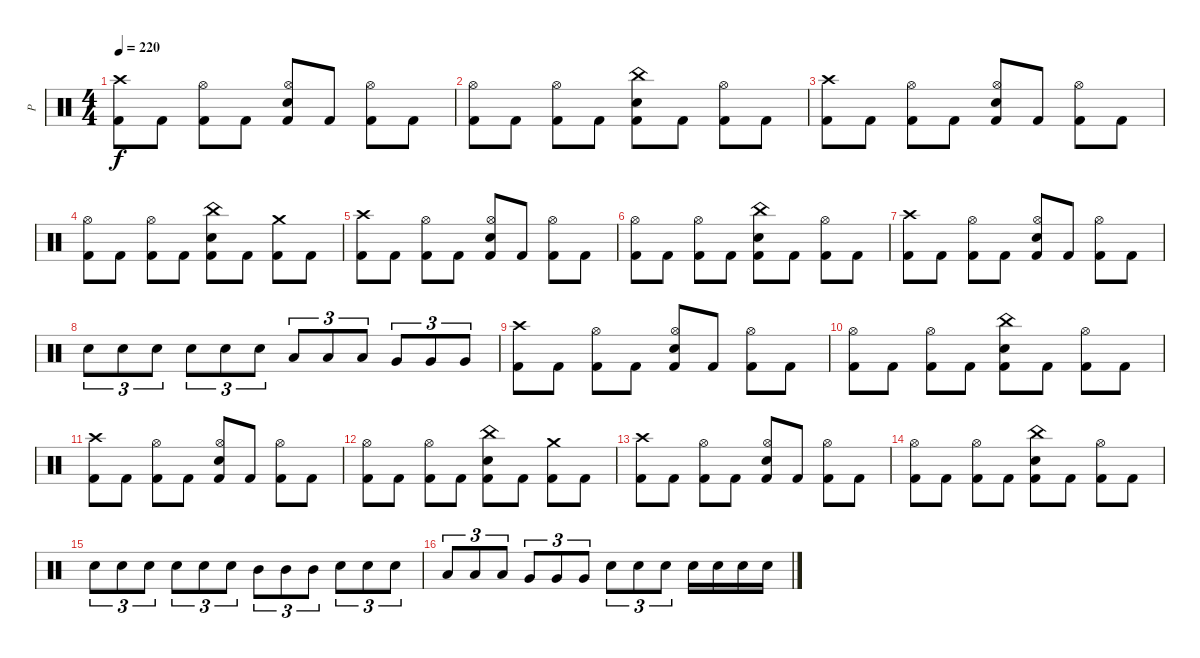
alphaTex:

\track ("P" "P") {instrument percussion}
\staff {score}
\articulation defaults
\ts (4 4)
\tempo 220
\clef neutral
\ks c
("Crash high (hit)" "Kick (hit) 2").8{dy f} "Kick (hit) 2".8 ("Hi-Hat (open)" "Kick (hit) 2").8 "Kick (hit) 2".8 ("Hi-Hat (open)" "Electric Snare (hit)" "Kick (hit) 2").8 "Kick (hit) 2".8 ("Hi-Hat (open)" "Kick (hit) 2").8 "Kick (hit) 2".8 |
("Hi-Hat (open)" "Kick (hit) 2").8 "Kick (hit) 2".8 ("Hi-Hat (open)" "Kick (hit) 2").8 "Kick (hit) 2".8 ("China (hit)" "Electric Snare (hit)" "Kick (hit) 2").8 "Kick (hit) 2".8 ("Hi-Hat (open)" "Kick (hit) 2").8 "Kick (hit) 2".8 |
("Crash high (hit)" "Kick (hit) 2").8 "Kick (hit) 2".8 ("Hi-Hat (open)" "Kick (hit) 2").8 "Kick (hit) 2".8 ("Hi-Hat (open)" "Electric Snare (hit)" "Kick (hit) 2").8 "Kick (hit) 2".8 ("Hi-Hat (open)" "Kick (hit) 2").8 "Kick (hit) 2".8 |
("Hi-Hat (open)" "Kick (hit) 2").8 "Kick (hit) 2".8 ("Hi-Hat (open)" "Kick (hit) 2").8 "Kick (hit) 2".8 ("China (hit)" "Electric Snare (hit)" "Kick (hit) 2").8 "Kick (hit) 2".8 ("Crash medium (hit)" "Kick (hit) 2").8 "Kick (hit) 2".8 |
("Crash high (hit)" "Kick (hit) 2").8 "Kick (hit) 2".8 ("Hi-Hat (open)" "Kick (hit) 2").8 "Kick (hit) 2".8 ("Hi-Hat (open)" "Electric Snare (hit)" "Kick (hit) 2").8 "Kick (hit) 2".8 ("Hi-Hat (open)" "Kick (hit) 2").8 "Kick (hit) 2".8 |
("Hi-Hat (open)" "Kick (hit) 2").8 "Kick (hit) 2".8 ("Hi-Hat (open)" "Kick (hit) 2").8 "Kick (hit) 2".8 ("China (hit)" "Electric Snare (hit)" "Kick (hit) 2").8 "Kick (hit) 2".8 ("Hi-Hat (open)" "Kick (hit) 2").8 "Kick (hit) 2".8 |
("Crash high (hit)" "Kick (hit) 2").8 "Kick (hit) 2".8 ("Hi-Hat (open)" "Kick (hit) 2").8 "Kick (hit) 2".8 ("Hi-Hat (open)" "Electric Snare (hit)" "Kick (hit) 2").8 "Kick (hit) 2".8 ("Hi-Hat (open)" "Kick (hit) 2").8 "Kick (hit) 2".8 |
"Electric Snare (hit)".8{tu (3 2)} "Electric Snare (hit)".8{tu (3 2)} "Electric Snare (hit)".8{tu (3 2)} "Electric Snare (hit)".8{tu (3 2)} "Electric Snare (hit)".8{tu (3 2)} "Electric Snare (hit)".8{tu (3 2)} "Low Tom (hit)".8{tu (3 2)} "Low Tom (hit)".8{tu (3 2)} "Low Tom (hit)".8{tu (3 2)} "Very Low Tom (hit)".8{tu (3 2)} "Very Low Tom (hit)".8{tu (3 2)} "Very Low Tom (hit)".8{tu (3 2)} |
("Crash high (hit)" "Kick (hit) 2").8 "Kick (hit) 2".8 ("Hi-Hat (open)" "Kick (hit) 2").8 "Kick (hit) 2".8 ("Hi-Hat (open)" "Electric Snare (hit)" "Kick (hit) 2").8 "Kick (hit) 2".8 ("Hi-Hat (open)" "Kick (hit) 2").8 "Kick (hit) 2".8 |
("Hi-Hat (open)" "Kick (hit) 2").8 "Kick (hit) 2".8 ("Hi-Hat (open)" "Kick (hit) 2").8 "Kick (hit) 2".8 ("China (hit)" "Electric Snare (hit)" "Kick (hit) 2").8 "Kick (hit) 2".8 ("Hi-Hat (open)" "Kick (hit) 2").8 "Kick (hit) 2".8 |
("Crash high (hit)" "Kick (hit) 2").8 "Kick (hit) 2".8 ("Hi-Hat (open)" "Kick (hit) 2").8 "Kick (hit) 2".8 ("Hi-Hat (open)" "Electric Snare (hit)" "Kick (hit) 2").8 "Kick (hit) 2".8 ("Hi-Hat (open)" "Kick (hit) 2").8 "Kick (hit) 2".8 |
("Hi-Hat (open)" "Kick (hit) 2").8 "Kick (hit) 2".8 ("Hi-Hat (open)" "Kick (hit) 2").8 "Kick (hit) 2".8 ("China (hit)" "Electric Snare (hit)" "Kick (hit) 2").8 "Kick (hit) 2".8 ("Crash medium (hit)" "Kick (hit) 2").8 "Kick (hit) 2".8 |
("Crash high (hit)" "Kick (hit) 2").8 "Kick (hit) 2".8 ("Hi-Hat (open)" "Kick (hit) 2").8 "Kick (hit) 2".8 ("Hi-Hat (open)" "Electric Snare (hit)" "Kick (hit) 2").8 "Kick (hit) 2".8 ("Hi-Hat (open)" "Kick (hit) 2").8 "Kick (hit) 2".8 |
("Hi-Hat (open)" "Kick (hit) 2").8 "Kick (hit) 2".8 ("Hi-Hat (open)" "Kick (hit) 2").8 "Kick (hit) 2".8 ("China (hit)" "Electric Snare (hit)" "Kick (hit) 2").8 "Kick (hit) 2".8 ("Hi-Hat (open)" "Kick (hit) 2").8 "Kick (hit) 2".8 |
"Electric Snare (hit)".8{tu (3 2)} "Electric Snare (hit)".8{tu (3 2)} "Electric Snare (hit)".8{tu (3 2)} "Electric Snare (hit)".8{tu (3 2)} "Electric Snare (hit)".8{tu (3 2)} "Electric Snare (hit)".8{tu (3 2)} "Mid Tom (hit)".8{tu (3 2)} "Mid Tom (hit)".8{tu (3 2)} "Mid Tom (hit)".8{tu (3 2)} "Electric Snare (hit)".8{tu (3 2)} "Electric Snare (hit)".8{tu (3 2)} "Electric Snare (hit)".8{tu (3 2)} |
"Low Tom (hit)".8{tu (3 2)} "Low Tom (hit)".8{tu (3 2)} "Low Tom (hit)".8{tu (3 2)} "Very Low Tom (hit)".8{tu (3 2)} "Very Low Tom (hit)".8{tu (3 2)} "Very Low Tom (hit)".8{tu (3 2)} "Electric Snare (hit)".8{tu (3 2)} "Electric Snare (hit)".8{tu (3 2)} "Electric Snare (hit)".8{tu (3 2)} "Electric Snare (hit)".16 "Electric Snare (hit)".16 "Electric Snare (hit)".16 "Electric Snare (hit)".16
